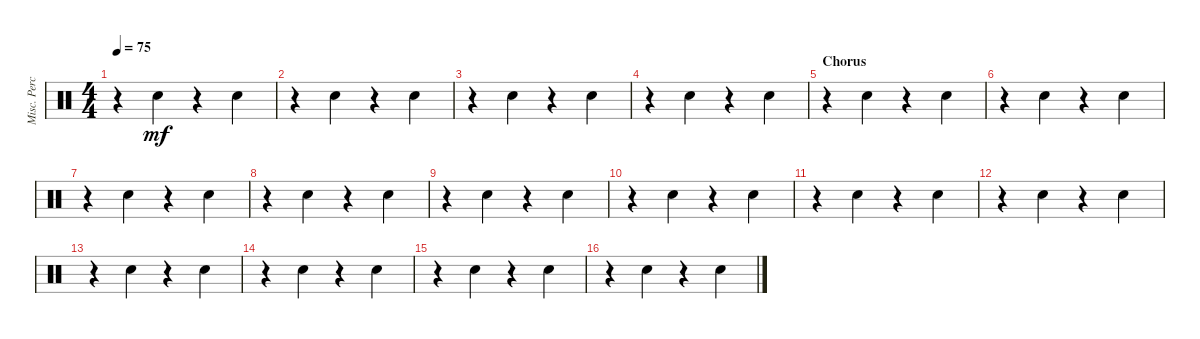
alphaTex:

\track ("Misc. Percussion" "Misc. Perc") {instrument percussion}
\staff {score}
\articulation defaults
\ts (4 4)
\tempo 75
\clef neutral
\ks c
r.4{dy mf} "Hand Clap (hit)".4 r.4 "Hand Clap (hit)".4 |
r.4 "Hand Clap (hit)".4 r.4 "Hand Clap (hit)".4 |
r.4 "Hand Clap (hit)".4 r.4 "Hand Clap (hit)".4 |
r.4 "Hand Clap (hit)".4 r.4 "Hand Clap (hit)".4 |
\section ("" "Chorus")
r.4 "Hand Clap (hit)".4 r.4 "Hand Clap (hit)".4 |
r.4 "Hand Clap (hit)".4 r.4 "Hand Clap (hit)".4 |
r.4 "Hand Clap (hit)".4 r.4 "Hand Clap (hit)".4 |
r.4 "Hand Clap (hit)".4 r.4 "Hand Clap (hit)".4 |
r.4 "Hand Clap (hit)".4 r.4 "Hand Clap (hit)".4 |
r.4 "Hand Clap (hit)".4 r.4 "Hand Clap (hit)".4 |
r.4 "Hand Clap (hit)".4 r.4 "Hand Clap (hit)".4 |
r.4 "Hand Clap (hit)".4 r.4 "Hand Clap (hit)".4 |
r.4 "Hand Clap (hit)".4 r.4 "Hand Clap (hit)".4 |
r.4 "Hand Clap (hit)".4 r.4 "Hand Clap (hit)".4 |
r.4 "Hand Clap (hit)".4 r.4 "Hand Clap (hit)".4 |
r.4 "Hand Clap (hit)".4 r.4 "Hand Clap (hit)".4
